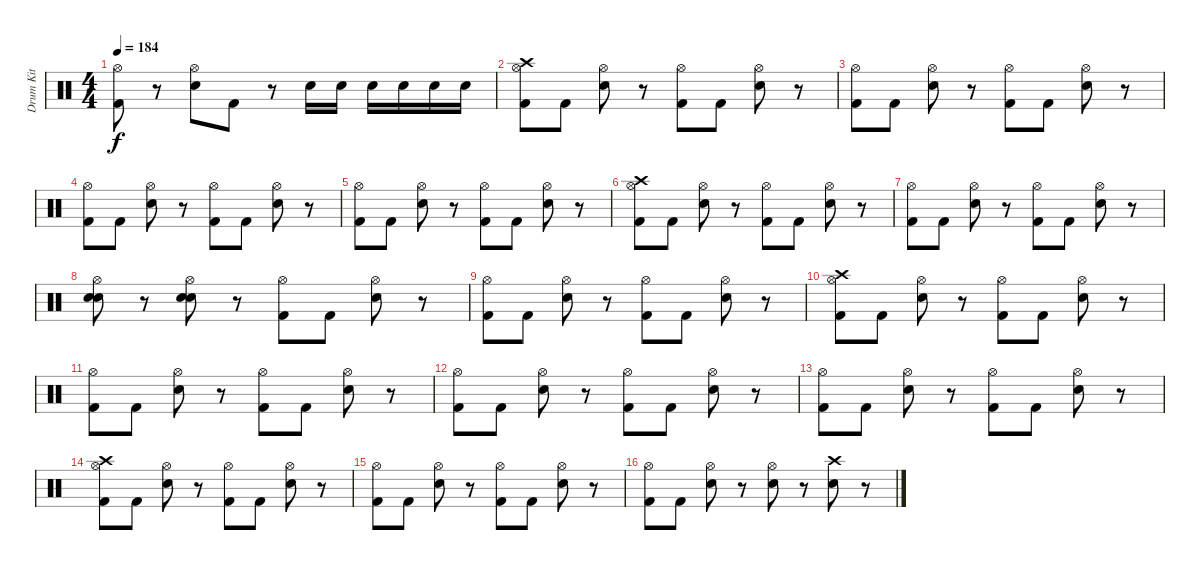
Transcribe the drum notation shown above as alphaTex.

\track ("Drum Kit" "Drum Kit") {instrument percussion}
\staff {score}
\articulation defaults
\ts (4 4)
\tempo 184
\clef neutral
\ks c
("Hi-Hat (open)" "Kick (hit) 2").8{dy f} r.8 ("Hi-Hat (open)" "Snare (hit) 2").8 "Kick (hit) 2".8 r.8 "Snare (hit) 2".16 "Snare (hit) 2".16 "Snare (hit) 2".16 "Snare (hit) 2".16 "Snare (hit) 2".16 "Snare (hit) 2".16 |
("Crash high (hit)" "Hi-Hat (open)" "Kick (hit) 2").8 "Kick (hit) 2".8 ("Hi-Hat (open)" "Snare (hit) 2").8 r.8 ("Hi-Hat (open)" "Kick (hit) 2").8 "Kick (hit) 2".8 ("Hi-Hat (open)" "Snare (hit) 2").8 r.8 |
("Hi-Hat (open)" "Kick (hit) 2").8 "Kick (hit) 2".8 ("Hi-Hat (open)" "Snare (hit) 2").8 r.8 ("Hi-Hat (open)" "Kick (hit) 2").8 "Kick (hit) 2".8 ("Hi-Hat (open)" "Snare (hit) 2").8 r.8 |
("Hi-Hat (open)" "Kick (hit) 2").8 "Kick (hit) 2".8 ("Hi-Hat (open)" "Snare (hit) 2").8 r.8 ("Hi-Hat (open)" "Kick (hit) 2").8 "Kick (hit) 2".8 ("Hi-Hat (open)" "Snare (hit) 2").8 r.8 |
("Hi-Hat (open)" "Kick (hit) 2").8 "Kick (hit) 2".8 ("Hi-Hat (open)" "Snare (hit) 2").8 r.8 ("Hi-Hat (open)" "Kick (hit) 2").8 "Kick (hit) 2".8 ("Hi-Hat (open)" "Snare (hit) 2").8 r.8 |
("Crash high (hit)" "Hi-Hat (open)" "Kick (hit) 2").8 "Kick (hit) 2".8 ("Hi-Hat (open)" "Snare (hit) 2").8 r.8 ("Hi-Hat (open)" "Kick (hit) 2").8 "Kick (hit) 2".8 ("Hi-Hat (open)" "Snare (hit) 2").8 r.8 |
("Hi-Hat (open)" "Kick (hit) 2").8 "Kick (hit) 2".8 ("Hi-Hat (open)" "Snare (hit) 2").8 r.8 ("Hi-Hat (open)" "Kick (hit) 2").8 "Kick (hit) 2".8 ("Hi-Hat (open)" "Snare (hit) 2").8 r.8 |
("Hi-Hat (open)" "Electric Snare (hit)" "Snare (hit) 2").8 r.8 ("Hi-Hat (open)" "Electric Snare (hit)" "Snare (hit) 2").8 r.8 ("Hi-Hat (open)" "Kick (hit) 2").8 "Kick (hit) 2".8 ("Hi-Hat (open)" "Snare (hit) 2").8 r.8 |
("Hi-Hat (open)" "Kick (hit) 2").8 "Kick (hit) 2".8 ("Hi-Hat (open)" "Snare (hit) 2").8 r.8 ("Hi-Hat (open)" "Kick (hit) 2").8 "Kick (hit) 2".8 ("Hi-Hat (open)" "Snare (hit) 2").8 r.8 |
("Crash high (hit)" "Hi-Hat (open)" "Kick (hit) 2").8 "Kick (hit) 2".8 ("Hi-Hat (open)" "Snare (hit) 2").8 r.8 ("Hi-Hat (open)" "Kick (hit) 2").8 "Kick (hit) 2".8 ("Hi-Hat (open)" "Snare (hit) 2").8 r.8 |
("Hi-Hat (open)" "Kick (hit) 2").8 "Kick (hit) 2".8 ("Hi-Hat (open)" "Snare (hit) 2").8 r.8 ("Hi-Hat (open)" "Kick (hit) 2").8 "Kick (hit) 2".8 ("Hi-Hat (open)" "Snare (hit) 2").8 r.8 |
("Hi-Hat (open)" "Kick (hit) 2").8 "Kick (hit) 2".8 ("Hi-Hat (open)" "Snare (hit) 2").8 r.8 ("Hi-Hat (open)" "Kick (hit) 2").8 "Kick (hit) 2".8 ("Hi-Hat (open)" "Snare (hit) 2").8 r.8 |
("Hi-Hat (open)" "Kick (hit) 2").8 "Kick (hit) 2".8 ("Hi-Hat (open)" "Snare (hit) 2").8 r.8 ("Hi-Hat (open)" "Kick (hit) 2").8 "Kick (hit) 2".8 ("Hi-Hat (open)" "Snare (hit) 2").8 r.8 |
("Crash high (hit)" "Hi-Hat (open)" "Kick (hit) 2").8 "Kick (hit) 2".8 ("Hi-Hat (open)" "Snare (hit) 2").8 r.8 ("Hi-Hat (open)" "Kick (hit) 2").8 "Kick (hit) 2".8 ("Hi-Hat (open)" "Snare (hit) 2").8 r.8 |
("Hi-Hat (open)" "Kick (hit) 2").8 "Kick (hit) 2".8 ("Hi-Hat (open)" "Snare (hit) 2").8 r.8 ("Hi-Hat (open)" "Kick (hit) 2").8 "Kick (hit) 2".8 ("Hi-Hat (open)" "Snare (hit) 2").8 r.8 |
("Hi-Hat (open)" "Kick (hit) 2").8 "Kick (hit) 2".8 ("Hi-Hat (open)" "Snare (hit) 2").8 r.8 ("Hi-Hat (open)" "Snare (hit) 2").8 r.8 ("Crash high (hit)" "Snare (hit) 2").8 r.8
